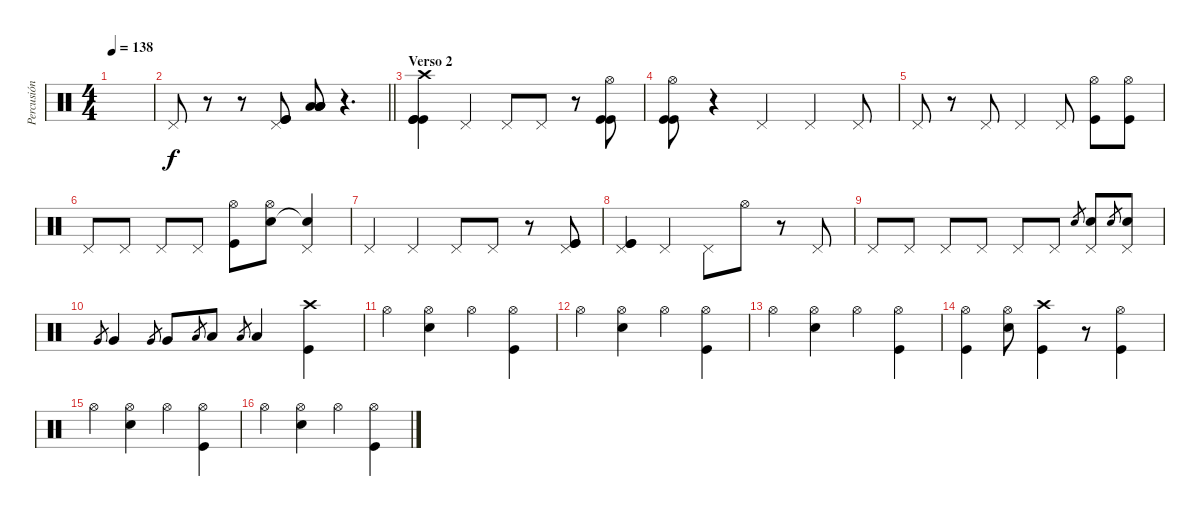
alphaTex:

\track ("Percusión" "Percusión") {instrument percussion}
\staff {score}
\articulation defaults
\ts (4 4)
\tempo 138
\clef neutral
\ks c
|
\barLineRight lightlight "Pedal Hi-Hat (hit)".8
r.8 r.8 ("Pedal Hi-Hat (hit)" "Kick (hit)" "Kick (hit)").8 ("Low Floor Tom (hit)" "Low Floor Tom (hit)" "Low Floor Tom (hit)" "Low Floor Tom (hit)").8 r.4{d} |
\section ("" "Verso 2")
("Crash high (hit)" "Kick (hit)" "Kick (hit)" "Kick (hit)").4 "Pedal Hi-Hat (hit)".4 "Pedal Hi-Hat (hit)".8 "Pedal Hi-Hat (hit)".8 r.8 ("Hi-Hat (open)" "Kick (hit)" "Kick (hit)").8 |
("Hi-Hat (open)" "Kick (hit)" "Kick (hit)").8 r.4 "Pedal Hi-Hat (hit)".4 "Pedal Hi-Hat (hit)".4 "Pedal Hi-Hat (hit)".8 |
"Pedal Hi-Hat (hit)".8 r.8 "Pedal Hi-Hat (hit)".8 "Pedal Hi-Hat (hit)".4 "Pedal Hi-Hat (hit)".8 ("Hi-Hat (open)" "Kick (hit)").8 ("Hi-Hat (open)" "Kick (hit)").8 |
"Pedal Hi-Hat (hit)".8 "Pedal Hi-Hat (hit)".8 "Pedal Hi-Hat (hit)".8 "Pedal Hi-Hat (hit)".8 ("Hi-Hat (open)" "Kick (hit)").8 ("Hi-Hat (open)" "Electric Snare (hit)").8 ("Pedal Hi-Hat (hit)" "Electric Snare (hit)"{t}).4 |
"Pedal Hi-Hat (hit)".4 "Pedal Hi-Hat (hit)".4 "Pedal Hi-Hat (hit)".8 "Pedal Hi-Hat (hit)".8 r.8 ("Pedal Hi-Hat (hit)" "Kick (hit)" "Kick (hit)").8 |
("Pedal Hi-Hat (hit)" "Kick (hit)" "Kick (hit)").4 "Pedal Hi-Hat (hit)".4 "Pedal Hi-Hat (hit)".8 "Hi-Hat (open)".8 r.8 "Pedal Hi-Hat (hit)".8 |
"Pedal Hi-Hat (hit)".8 "Pedal Hi-Hat (hit)".8 "Pedal Hi-Hat (hit)".8 "Pedal Hi-Hat (hit)".8 "Pedal Hi-Hat (hit)".8 "Pedal Hi-Hat (hit)".8 "Electric Snare (hit)".8{gr} ("Pedal Hi-Hat (hit)" "Electric Snare (hit)").8 "Electric Snare (hit)".8{gr} ("Pedal Hi-Hat (hit)" "Electric Snare (hit)").8 |
"Very Low Tom (hit)".8{gr} "Very Low Tom (hit)".4 "Very Low Tom (hit)".8{gr} "Very Low Tom (hit)".8 "Low Floor Tom (hit)".8{gr} "Low Floor Tom (hit)".8 "Low Floor Tom (hit)".8{gr} "Low Floor Tom (hit)".4 ("Crash high (hit)" "Kick (hit)").4 |
"Hi-Hat (open)".4 ("Hi-Hat (open)" "Electric Snare (hit)").4 "Hi-Hat (open)".4 ("Hi-Hat (open)" "Kick (hit)").4 |
"Hi-Hat (open)".4 ("Hi-Hat (open)" "Electric Snare (hit)").4 "Hi-Hat (open)".4 ("Hi-Hat (open)" "Kick (hit)").4 |
"Hi-Hat (open)".4 ("Hi-Hat (open)" "Electric Snare (hit)").4 "Hi-Hat (open)".4 ("Hi-Hat (open)" "Kick (hit)").4 |
("Hi-Hat (open)" "Kick (hit)").4 ("Hi-Hat (open)" "Electric Snare (hit)").8 ("Crash high (hit)" "Kick (hit)").4 r.8 ("Hi-Hat (open)" "Kick (hit)").4 |
"Hi-Hat (open)".4 ("Hi-Hat (open)" "Electric Snare (hit)").4 "Hi-Hat (open)".4 ("Hi-Hat (open)" "Kick (hit)").4 |
"Hi-Hat (open)".4 ("Hi-Hat (open)" "Electric Snare (hit)").4 "Hi-Hat (open)".4 ("Hi-Hat (open)" "Kick (hit)").4
